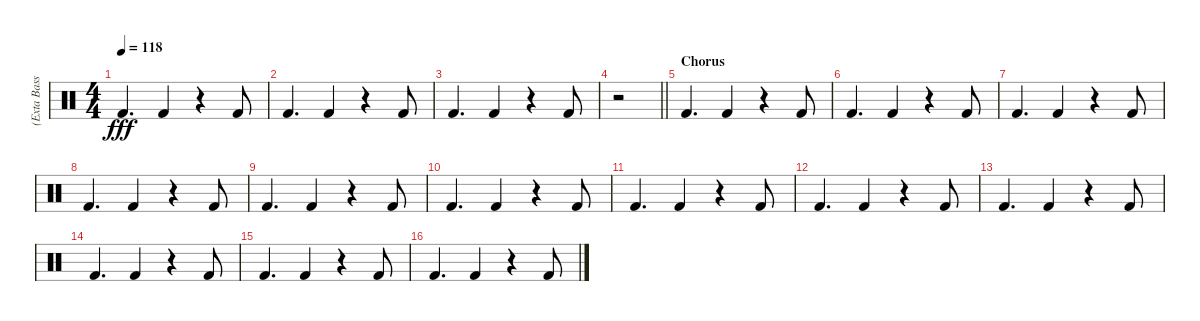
\track ("(Exta Bass Boost)Eddie Fisher" "(Exta Bass") {instrument percussion}
\staff {score}
\articulation defaults
\ts (4 4)
\tempo 118
\clef neutral
\ks c "Kick (hit) 2".4{d dy fff} "Kick (hit) 2".4
r.4 "Kick (hit) 2".8 |
"Kick (hit) 2".4{d} "Kick (hit) 2".4 r.4 "Kick (hit) 2".8 |
"Kick (hit) 2".4{d} "Kick (hit) 2".4 r.4 "Kick (hit) 2".8 |
\barLineRight lightlight
r.2 |
\section ("" "Chorus")
"Kick (hit) 2".4{d} "Kick (hit) 2".4 r.4 "Kick (hit) 2".8 |
"Kick (hit) 2".4{d} "Kick (hit) 2".4 r.4 "Kick (hit) 2".8 |
"Kick (hit) 2".4{d} "Kick (hit) 2".4 r.4 "Kick (hit) 2".8 |
"Kick (hit) 2".4{d} "Kick (hit) 2".4 r.4 "Kick (hit) 2".8 |
"Kick (hit) 2".4{d} "Kick (hit) 2".4 r.4 "Kick (hit) 2".8 |
"Kick (hit) 2".4{d} "Kick (hit) 2".4 r.4 "Kick (hit) 2".8 |
"Kick (hit) 2".4{d} "Kick (hit) 2".4 r.4 "Kick (hit) 2".8 |
"Kick (hit) 2".4{d} "Kick (hit) 2".4 r.4 "Kick (hit) 2".8 |
"Kick (hit) 2".4{d} "Kick (hit) 2".4 r.4 "Kick (hit) 2".8 |
"Kick (hit) 2".4{d} "Kick (hit) 2".4 r.4 "Kick (hit) 2".8 |
"Kick (hit) 2".4{d} "Kick (hit) 2".4 r.4 "Kick (hit) 2".8 |
"Kick (hit) 2".4{d} "Kick (hit) 2".4 r.4 "Kick (hit) 2".8
